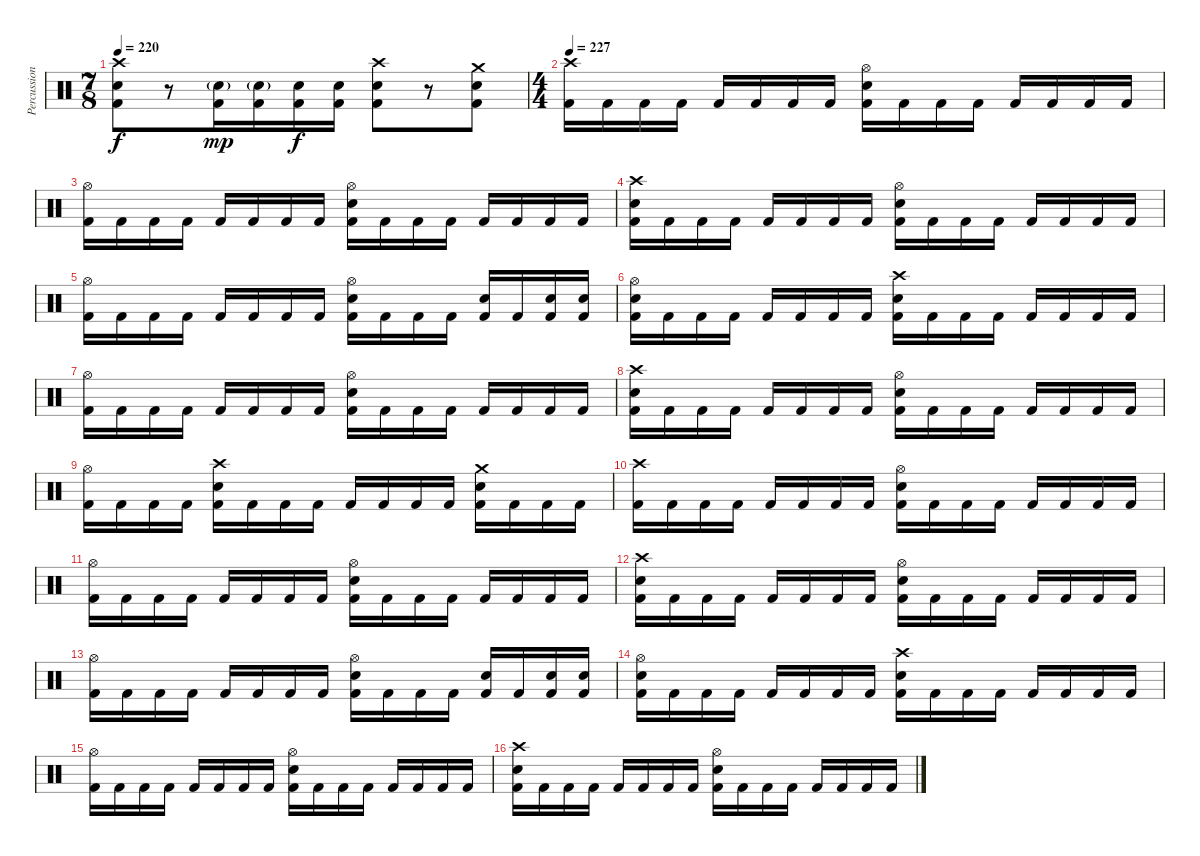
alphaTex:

\track ("Percussioni" "Percussion") {instrument percussion}
\staff {score}
\articulation defaults
\ts (7 8)
\tempo 220
\clef neutral
\ks c
("Crash high (hit)" "Snare (hit) 2" "Kick (hit) 2").8{dy f} r.8 ("Snare (hit) 2"{g} "Kick (hit) 2").16{dy mp} ("Snare (hit) 2"{g} "Kick (hit) 2").16 ("Snare (hit) 2" "Kick (hit) 2").16{dy f} ("Snare (hit) 2" "Kick (hit) 2").16 ("Crash high (hit)" "Snare (hit) 2" "Kick (hit) 2").8 r.8 ("Crash medium (hit)" "Snare (hit) 2" "Kick (hit) 2").8 |
\ts (4 4)
\tempo 227
("Crash high (hit)" "Kick (hit) 2").16 "Kick (hit) 2".16 "Kick (hit) 2".16 "Kick (hit) 2".16 "Kick (hit) 2".16 "Kick (hit) 2".16 "Kick (hit) 2".16 "Kick (hit) 2".16 ("Snare (hit) 2" "Hi-Hat (open)" "Kick (hit) 2").16 "Kick (hit) 2".16 "Kick (hit) 2".16 "Kick (hit) 2".16 "Kick (hit) 2".16 "Kick (hit) 2".16 "Kick (hit) 2".16 "Kick (hit) 2".16 |
("Hi-Hat (open)" "Kick (hit) 2").16 "Kick (hit) 2".16 "Kick (hit) 2".16 "Kick (hit) 2".16 "Kick (hit) 2".16 "Kick (hit) 2".16 "Kick (hit) 2".16 "Kick (hit) 2".16 ("Snare (hit) 2" "Hi-Hat (open)" "Kick (hit) 2").16 "Kick (hit) 2".16 "Kick (hit) 2".16 "Kick (hit) 2".16 "Kick (hit) 2".16 "Kick (hit) 2".16 "Kick (hit) 2".16 "Kick (hit) 2".16 |
("Crash high (hit)" "Snare (hit) 2" "Kick (hit) 2").16 "Kick (hit) 2".16 "Kick (hit) 2".16 "Kick (hit) 2".16 "Kick (hit) 2".16 "Kick (hit) 2".16 "Kick (hit) 2".16 "Kick (hit) 2".16 ("Snare (hit) 2" "Hi-Hat (open)" "Kick (hit) 2").16 "Kick (hit) 2".16 "Kick (hit) 2".16 "Kick (hit) 2".16 "Kick (hit) 2".16 "Kick (hit) 2".16 "Kick (hit) 2".16 "Kick (hit) 2".16 |
("Hi-Hat (open)" "Kick (hit) 2").16 "Kick (hit) 2".16 "Kick (hit) 2".16 "Kick (hit) 2".16 "Kick (hit) 2".16 "Kick (hit) 2".16 "Kick (hit) 2".16 "Kick (hit) 2".16 ("Snare (hit) 2" "Hi-Hat (open)" "Kick (hit) 2").16 "Kick (hit) 2".16 "Kick (hit) 2".16 "Kick (hit) 2".16 ("Snare (hit) 2" "Kick (hit) 2").16 "Kick (hit) 2".16 ("Snare (hit) 2" "Kick (hit) 2").16 ("Snare (hit) 2" "Kick (hit) 2").16 |
("Snare (hit) 2" "Hi-Hat (open)" "Kick (hit) 2").16 "Kick (hit) 2".16 "Kick (hit) 2".16 "Kick (hit) 2".16 "Kick (hit) 2".16 "Kick (hit) 2".16 "Kick (hit) 2".16 "Kick (hit) 2".16 ("Crash high (hit)" "Snare (hit) 2" "Kick (hit) 2").16 "Kick (hit) 2".16 "Kick (hit) 2".16 "Kick (hit) 2".16 "Kick (hit) 2".16 "Kick (hit) 2".16 "Kick (hit) 2".16 "Kick (hit) 2".16 |
("Hi-Hat (open)" "Kick (hit) 2").16 "Kick (hit) 2".16 "Kick (hit) 2".16 "Kick (hit) 2".16 "Kick (hit) 2".16 "Kick (hit) 2".16 "Kick (hit) 2".16 "Kick (hit) 2".16 ("Snare (hit) 2" "Hi-Hat (open)" "Kick (hit) 2").16 "Kick (hit) 2".16 "Kick (hit) 2".16 "Kick (hit) 2".16 "Kick (hit) 2".16 "Kick (hit) 2".16 "Kick (hit) 2".16 "Kick (hit) 2".16 |
("Crash high (hit)" "Snare (hit) 2" "Kick (hit) 2").16 "Kick (hit) 2".16 "Kick (hit) 2".16 "Kick (hit) 2".16 "Kick (hit) 2".16 "Kick (hit) 2".16 "Kick (hit) 2".16 "Kick (hit) 2".16 ("Snare (hit) 2" "Hi-Hat (open)" "Kick (hit) 2").16 "Kick (hit) 2".16 "Kick (hit) 2".16 "Kick (hit) 2".16 "Kick (hit) 2".16 "Kick (hit) 2".16 "Kick (hit) 2".16 "Kick (hit) 2".16 |
("Hi-Hat (open)" "Kick (hit) 2").16 "Kick (hit) 2".16 "Kick (hit) 2".16 "Kick (hit) 2".16 ("Snare (hit) 2" "Crash high (hit)" "Kick (hit) 2").16 "Kick (hit) 2".16 "Kick (hit) 2".16 "Kick (hit) 2".16 "Kick (hit) 2".16 "Kick (hit) 2".16 "Kick (hit) 2".16 "Kick (hit) 2".16 ("Snare (hit) 2" "Crash medium (hit)" "Kick (hit) 2").16 "Kick (hit) 2".16 "Kick (hit) 2".16 "Kick (hit) 2".16 |
("Crash high (hit)" "Kick (hit) 2").16 "Kick (hit) 2".16 "Kick (hit) 2".16 "Kick (hit) 2".16 "Kick (hit) 2".16 "Kick (hit) 2".16 "Kick (hit) 2".16 "Kick (hit) 2".16 ("Snare (hit) 2" "Hi-Hat (open)" "Kick (hit) 2").16 "Kick (hit) 2".16 "Kick (hit) 2".16 "Kick (hit) 2".16 "Kick (hit) 2".16 "Kick (hit) 2".16 "Kick (hit) 2".16 "Kick (hit) 2".16 |
("Hi-Hat (open)" "Kick (hit) 2").16 "Kick (hit) 2".16 "Kick (hit) 2".16 "Kick (hit) 2".16 "Kick (hit) 2".16 "Kick (hit) 2".16 "Kick (hit) 2".16 "Kick (hit) 2".16 ("Snare (hit) 2" "Hi-Hat (open)" "Kick (hit) 2").16 "Kick (hit) 2".16 "Kick (hit) 2".16 "Kick (hit) 2".16 "Kick (hit) 2".16 "Kick (hit) 2".16 "Kick (hit) 2".16 "Kick (hit) 2".16 |
("Crash high (hit)" "Snare (hit) 2" "Kick (hit) 2").16 "Kick (hit) 2".16 "Kick (hit) 2".16 "Kick (hit) 2".16 "Kick (hit) 2".16 "Kick (hit) 2".16 "Kick (hit) 2".16 "Kick (hit) 2".16 ("Snare (hit) 2" "Hi-Hat (open)" "Kick (hit) 2").16 "Kick (hit) 2".16 "Kick (hit) 2".16 "Kick (hit) 2".16 "Kick (hit) 2".16 "Kick (hit) 2".16 "Kick (hit) 2".16 "Kick (hit) 2".16 |
("Hi-Hat (open)" "Kick (hit) 2").16 "Kick (hit) 2".16 "Kick (hit) 2".16 "Kick (hit) 2".16 "Kick (hit) 2".16 "Kick (hit) 2".16 "Kick (hit) 2".16 "Kick (hit) 2".16 ("Snare (hit) 2" "Hi-Hat (open)" "Kick (hit) 2").16 "Kick (hit) 2".16 "Kick (hit) 2".16 "Kick (hit) 2".16 ("Snare (hit) 2" "Kick (hit) 2").16 "Kick (hit) 2".16 ("Snare (hit) 2" "Kick (hit) 2").16 ("Snare (hit) 2" "Kick (hit) 2").16 |
("Snare (hit) 2" "Hi-Hat (open)" "Kick (hit) 2").16 "Kick (hit) 2".16 "Kick (hit) 2".16 "Kick (hit) 2".16 "Kick (hit) 2".16 "Kick (hit) 2".16 "Kick (hit) 2".16 "Kick (hit) 2".16 ("Crash high (hit)" "Snare (hit) 2" "Kick (hit) 2").16 "Kick (hit) 2".16 "Kick (hit) 2".16 "Kick (hit) 2".16 "Kick (hit) 2".16 "Kick (hit) 2".16 "Kick (hit) 2".16 "Kick (hit) 2".16 |
("Hi-Hat (open)" "Kick (hit) 2").16 "Kick (hit) 2".16 "Kick (hit) 2".16 "Kick (hit) 2".16 "Kick (hit) 2".16 "Kick (hit) 2".16 "Kick (hit) 2".16 "Kick (hit) 2".16 ("Snare (hit) 2" "Hi-Hat (open)" "Kick (hit) 2").16 "Kick (hit) 2".16 "Kick (hit) 2".16 "Kick (hit) 2".16 "Kick (hit) 2".16 "Kick (hit) 2".16 "Kick (hit) 2".16 "Kick (hit) 2".16 |
("Crash high (hit)" "Snare (hit) 2" "Kick (hit) 2").16 "Kick (hit) 2".16 "Kick (hit) 2".16 "Kick (hit) 2".16 "Kick (hit) 2".16 "Kick (hit) 2".16 "Kick (hit) 2".16 "Kick (hit) 2".16 ("Snare (hit) 2" "Hi-Hat (open)" "Kick (hit) 2").16 "Kick (hit) 2".16 "Kick (hit) 2".16 "Kick (hit) 2".16 "Kick (hit) 2".16 "Kick (hit) 2".16 "Kick (hit) 2".16 "Kick (hit) 2".16
